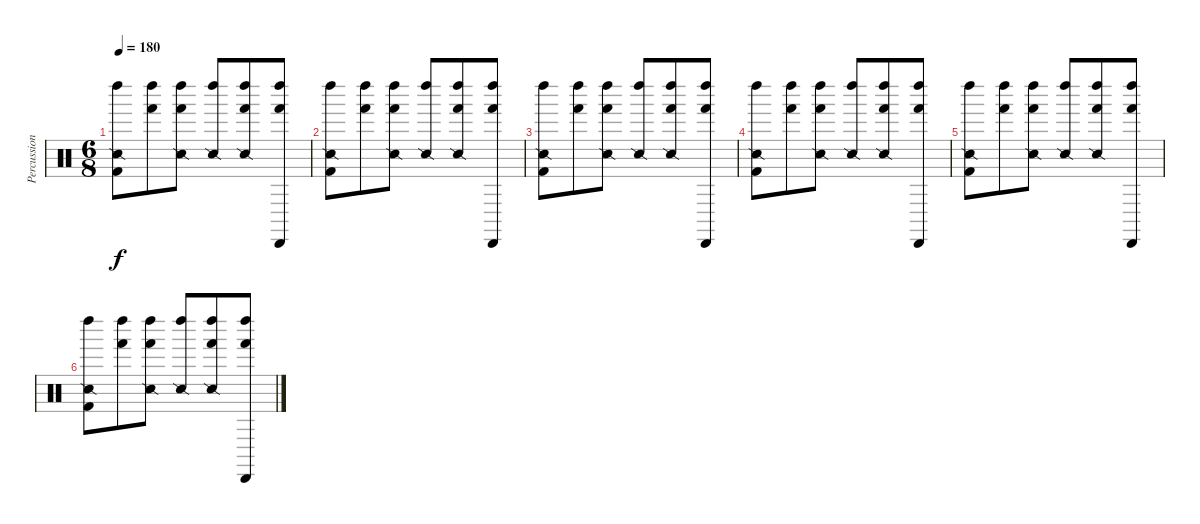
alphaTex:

\track ("Percussion" "Percussion") {instrument percussion}
\staff {score}
\articulation defaults
\ts (6 8)
\tempo 180
\clef neutral
\ks c
("Kick (hit) 2" "Snare (side stick) 2" "Left Maraca (hit)").8{dy f} ("Hand (hit)" "Left Maraca (hit)").8 ("Hand (hit)" "Snare (side stick) 2" "Left Maraca (hit)").8 ("Snare (side stick) 2" "Left Maraca (hit)").8 ("Hand (hit)" "Snare (side stick) 2" "Left Maraca (hit)").8 ("Hand (hit)" "Cabasa (hit)" "Left Maraca (hit)").8 |
("Kick (hit) 2" "Snare (side stick) 2" "Left Maraca (hit)").8 ("Hand (hit)" "Left Maraca (hit)").8 ("Hand (hit)" "Snare (side stick) 2" "Left Maraca (hit)").8 ("Snare (side stick) 2" "Left Maraca (hit)").8 ("Hand (hit)" "Snare (side stick) 2" "Left Maraca (hit)").8 ("Hand (hit)" "Cabasa (hit)" "Left Maraca (hit)").8 |
("Kick (hit) 2" "Snare (side stick) 2" "Left Maraca (hit)").8 ("Hand (hit)" "Left Maraca (hit)").8 ("Hand (hit)" "Snare (side stick) 2" "Left Maraca (hit)").8 ("Snare (side stick) 2" "Left Maraca (hit)").8 ("Hand (hit)" "Snare (side stick) 2" "Left Maraca (hit)").8 ("Hand (hit)" "Cabasa (hit)" "Left Maraca (hit)").8 |
("Kick (hit) 2" "Snare (side stick) 2" "Left Maraca (hit)").8 ("Hand (hit)" "Left Maraca (hit)").8 ("Hand (hit)" "Snare (side stick) 2" "Left Maraca (hit)").8 ("Snare (side stick) 2" "Left Maraca (hit)").8 ("Hand (hit)" "Snare (side stick) 2" "Left Maraca (hit)").8 ("Hand (hit)" "Cabasa (hit)" "Left Maraca (hit)").8 |
("Kick (hit) 2" "Snare (side stick) 2" "Left Maraca (hit)").8 ("Hand (hit)" "Left Maraca (hit)").8 ("Hand (hit)" "Snare (side stick) 2" "Left Maraca (hit)").8 ("Snare (side stick) 2" "Left Maraca (hit)").8 ("Hand (hit)" "Snare (side stick) 2" "Left Maraca (hit)").8 ("Hand (hit)" "Cabasa (hit)" "Left Maraca (hit)").8 |
("Kick (hit) 2" "Snare (side stick) 2" "Left Maraca (hit)").8 ("Hand (hit)" "Left Maraca (hit)").8 ("Hand (hit)" "Snare (side stick) 2" "Left Maraca (hit)").8 ("Snare (side stick) 2" "Left Maraca (hit)").8 ("Hand (hit)" "Snare (side stick) 2" "Left Maraca (hit)").8 ("Hand (hit)" "Cabasa (hit)" "Left Maraca (hit)").8
